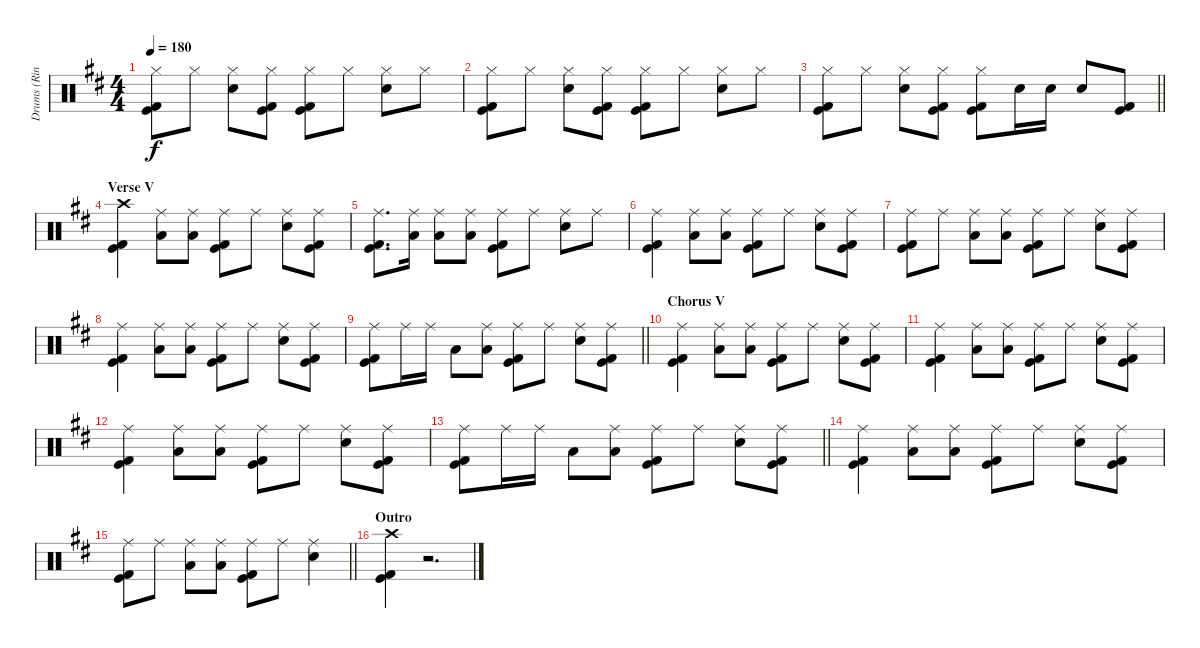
\track ("Drums (Ringo)" "Drums (Rin") {instrument percussion}
\staff {score}
\articulation defaults
\ts (4 4)
\tempo 180
\clef neutral
\ks d
("Hi-Hat (closed)" "Kick (hit) 2" "Kick (hit)").8{dy f} "Hi-Hat (closed)".8 ("Hi-Hat (closed)" "Electric Snare (hit)").8 ("Hi-Hat (closed)" "Kick (hit) 2" "Kick (hit)").8 ("Hi-Hat (closed)" "Kick (hit) 2" "Kick (hit)").8 "Hi-Hat (closed)".8 ("Hi-Hat (closed)" "Electric Snare (hit)").8 "Hi-Hat (closed)".8 |
("Hi-Hat (closed)" "Kick (hit) 2" "Kick (hit)").8 "Hi-Hat (closed)".8 ("Hi-Hat (closed)" "Electric Snare (hit)").8 ("Hi-Hat (closed)" "Kick (hit) 2" "Kick (hit)").8 ("Hi-Hat (closed)" "Kick (hit) 2" "Kick (hit)").8 "Hi-Hat (closed)".8 ("Hi-Hat (closed)" "Electric Snare (hit)").8 "Hi-Hat (closed)".8 |
\barLineRight lightlight
("Hi-Hat (closed)" "Kick (hit) 2" "Kick (hit)").8 "Hi-Hat (closed)".8 ("Hi-Hat (closed)" "Electric Snare (hit)").8 ("Hi-Hat (closed)" "Kick (hit) 2" "Kick (hit)").8 ("Hi-Hat (closed)" "Kick (hit) 2" "Kick (hit)").8 "Electric Snare (hit)".16 "Electric Snare (hit)".16 "Electric Snare (hit)".8 ("Kick (hit) 2" "Kick (hit)").8 |
\section ("" "Verse V")
("Crash high (hit)" "Kick (hit) 2" "Kick (hit)").4 ("Ride (middle)" "Low Tom (hit)").8 ("Ride (middle)" "Low Tom (hit)").8 ("Ride (middle)" "Kick (hit) 2" "Kick (hit)").8 "Ride (middle)".8 ("Ride (middle)" "Electric Snare (hit)").8 ("Ride (middle)" "Kick (hit) 2" "Kick (hit)").8 |
("Ride (middle)" "Kick (hit) 2" "Kick (hit)").8{d} ("Ride (middle)" "Low Tom (hit)").16 ("Ride (middle)" "Low Tom (hit)").8 ("Ride (middle)" "Low Tom (hit)").8 ("Ride (middle)" "Kick (hit) 2" "Kick (hit)").8 "Ride (middle)".8 ("Ride (middle)" "Electric Snare (hit)").8 "Ride (middle)".8 |
("Ride (middle)" "Kick (hit) 2" "Kick (hit)").4 ("Ride (middle)" "Low Tom (hit)").8 ("Ride (middle)" "Low Tom (hit)").8 ("Ride (middle)" "Kick (hit) 2" "Kick (hit)").8 "Ride (middle)".8 ("Ride (middle)" "Electric Snare (hit)").8 ("Ride (middle)" "Kick (hit) 2" "Kick (hit)").8 |
("Ride (middle)" "Kick (hit) 2" "Kick (hit)").8 "Ride (middle)".8 ("Ride (middle)" "Low Tom (hit)").8 ("Ride (middle)" "Low Tom (hit)").8 ("Ride (middle)" "Kick (hit) 2" "Kick (hit)").8 "Ride (middle)".8 ("Ride (middle)" "Electric Snare (hit)").8 ("Ride (middle)" "Kick (hit) 2" "Kick (hit)").8 |
("Ride (middle)" "Kick (hit) 2" "Kick (hit)").4 ("Ride (middle)" "Low Tom (hit)").8 ("Ride (middle)" "Low Tom (hit)").8 ("Ride (middle)" "Kick (hit) 2" "Kick (hit)").8 "Ride (middle)".8 ("Ride (middle)" "Electric Snare (hit)").8 ("Ride (middle)" "Kick (hit) 2" "Kick (hit)").8 |
\barLineRight lightlight
("Ride (middle)" "Kick (hit) 2" "Kick (hit)").8 "Ride (middle)".16 "Ride (middle)".16 "Low Tom (hit)".8 ("Ride (middle)" "Low Tom (hit)").8 ("Ride (middle)" "Kick (hit) 2" "Kick (hit)").8 "Ride (middle)".8 ("Ride (middle)" "Electric Snare (hit)").8 ("Ride (middle)" "Kick (hit) 2" "Kick (hit)").8 |
\section ("" "Chorus V")
("Ride (middle)" "Kick (hit) 2" "Kick (hit)").4 ("Ride (middle)" "Low Tom (hit)").8 ("Ride (middle)" "Low Tom (hit)").8 ("Ride (middle)" "Kick (hit) 2" "Kick (hit)").8 "Ride (middle)".8 ("Ride (middle)" "Electric Snare (hit)").8 ("Ride (middle)" "Kick (hit) 2" "Kick (hit)").8 |
("Ride (middle)" "Kick (hit) 2" "Kick (hit)").4 ("Ride (middle)" "Low Tom (hit)").8 ("Ride (middle)" "Low Tom (hit)").8 ("Ride (middle)" "Kick (hit) 2" "Kick (hit)").8 "Ride (middle)".8 ("Ride (middle)" "Electric Snare (hit)").8 ("Ride (middle)" "Kick (hit) 2" "Kick (hit)").8 |
("Ride (middle)" "Kick (hit) 2" "Kick (hit)").4 ("Ride (middle)" "Low Tom (hit)").8 ("Ride (middle)" "Low Tom (hit)").8 ("Ride (middle)" "Kick (hit) 2" "Kick (hit)").8 "Ride (middle)".8 ("Ride (middle)" "Electric Snare (hit)").8 ("Ride (middle)" "Kick (hit) 2" "Kick (hit)").8 |
\barLineRight lightlight
("Ride (middle)" "Kick (hit) 2" "Kick (hit)").8 "Ride (middle)".16 "Ride (middle)".16 "Low Tom (hit)".8 ("Ride (middle)" "Low Tom (hit)").8 ("Ride (middle)" "Kick (hit) 2" "Kick (hit)").8 "Ride (middle)".8 ("Ride (middle)" "Electric Snare (hit)").8 ("Ride (middle)" "Kick (hit) 2" "Kick (hit)").8 |
("Ride (middle)" "Kick (hit) 2" "Kick (hit)").4 ("Ride (middle)" "Low Tom (hit)").8 ("Ride (middle)" "Low Tom (hit)").8 ("Ride (middle)" "Kick (hit) 2" "Kick (hit)").8 "Ride (middle)".8 ("Ride (middle)" "Electric Snare (hit)").8 ("Ride (middle)" "Kick (hit) 2" "Kick (hit)").8 |
\barLineRight lightlight
("Ride (middle)" "Kick (hit) 2" "Kick (hit)").8 "Ride (middle)".8 ("Ride (middle)" "Low Tom (hit)").8 ("Ride (middle)" "Low Tom (hit)").8 ("Ride (middle)" "Kick (hit) 2" "Kick (hit)").8 "Ride (middle)".8 ("Ride (middle)" "Electric Snare (hit)").4 |
\section ("" "Outro")
("Crash high (hit)" "Kick (hit) 2" "Kick (hit)").4 r.2{d}
